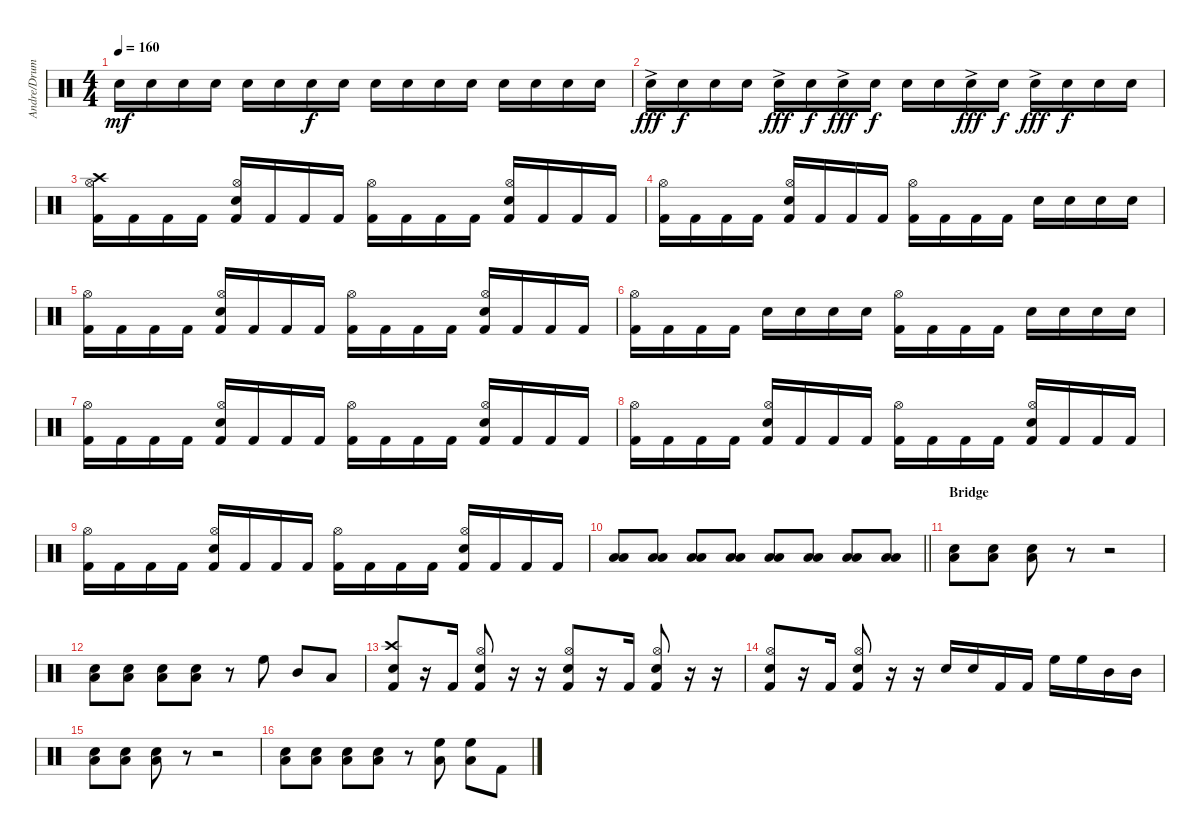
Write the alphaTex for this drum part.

\track ("Andre/Drums" "Andre/Drum") {instrument percussion}
\staff {score}
\articulation defaults
\ts (4 4)
\tempo 160
\clef neutral
\ks c "Snare (hit) 2".16{dy mf} "Snare (hit) 2".16 "Snare (hit) 2".16 "Snare (hit) 2".16 "Snare (hit) 2".16 "Snare (hit) 2".16 "Snare (hit) 2".16{dy f} "Snare (hit) 2".16 "Snare (hit) 2".16 "Snare (hit) 2".16 "Snare (hit) 2".16 "Snare (hit) 2".16 "Snare (hit) 2".16 "Snare (hit) 2".16 "Snare (hit) 2".16 "Snare (hit) 2".16
|
"Snare (hit) 2"{ac}.16{dy fff} "Snare (hit) 2".16{dy f} "Snare (hit) 2".16 "Snare (hit) 2".16 "Snare (hit) 2"{ac}.16{dy fff} "Snare (hit) 2".16{dy f} "Snare (hit) 2"{ac}.16{dy fff} "Snare (hit) 2".16{dy f} "Snare (hit) 2".16 "Snare (hit) 2".16 "Snare (hit) 2"{ac}.16{dy fff} "Snare (hit) 2".16{dy f} "Snare (hit) 2"{ac}.16{dy fff} "Snare (hit) 2".16{dy f} "Snare (hit) 2".16 "Snare (hit) 2".16 |
("Crash high (hit)" "Hi-Hat (open)" "Kick (hit) 2").16 "Kick (hit) 2".16 "Kick (hit) 2".16 "Kick (hit) 2".16 ("Hi-Hat (open)" "Snare (hit) 2" "Kick (hit) 2").16 "Kick (hit) 2".16 "Kick (hit) 2".16 "Kick (hit) 2".16 ("Hi-Hat (open)" "Kick (hit) 2").16 "Kick (hit) 2".16 "Kick (hit) 2".16 "Kick (hit) 2".16 ("Hi-Hat (open)" "Snare (hit) 2" "Kick (hit) 2").16 "Kick (hit) 2".16 "Kick (hit) 2".16 "Kick (hit) 2".16 |
("Hi-Hat (open)" "Kick (hit) 2").16 "Kick (hit) 2".16 "Kick (hit) 2".16 "Kick (hit) 2".16 ("Hi-Hat (open)" "Snare (hit) 2" "Kick (hit) 2").16 "Kick (hit) 2".16 "Kick (hit) 2".16 "Kick (hit) 2".16 ("Hi-Hat (open)" "Kick (hit) 2").16 "Kick (hit) 2".16 "Kick (hit) 2".16 "Kick (hit) 2".16 "Snare (hit) 2".16 "Snare (hit) 2".16 "Snare (hit) 2".16 "Snare (hit) 2".16 |
("Hi-Hat (open)" "Kick (hit) 2").16 "Kick (hit) 2".16 "Kick (hit) 2".16 "Kick (hit) 2".16 ("Hi-Hat (open)" "Snare (hit) 2" "Kick (hit) 2").16 "Kick (hit) 2".16 "Kick (hit) 2".16 "Kick (hit) 2".16 ("Hi-Hat (open)" "Kick (hit) 2").16 "Kick (hit) 2".16 "Kick (hit) 2".16 "Kick (hit) 2".16 ("Hi-Hat (open)" "Snare (hit) 2" "Kick (hit) 2").16 "Kick (hit) 2".16 "Kick (hit) 2".16 "Kick (hit) 2".16 |
("Hi-Hat (open)" "Kick (hit) 2").16 "Kick (hit) 2".16 "Kick (hit) 2".16 "Kick (hit) 2".16 "Snare (hit) 2".16 "Snare (hit) 2".16 "Snare (hit) 2".16 "Snare (hit) 2".16 ("Hi-Hat (open)" "Kick (hit) 2").16 "Kick (hit) 2".16 "Kick (hit) 2".16 "Kick (hit) 2".16 "Snare (hit) 2".16 "Snare (hit) 2".16 "Snare (hit) 2".16 "Snare (hit) 2".16 |
("Hi-Hat (open)" "Kick (hit) 2").16 "Kick (hit) 2".16 "Kick (hit) 2".16 "Kick (hit) 2".16 ("Hi-Hat (open)" "Snare (hit) 2" "Kick (hit) 2").16 "Kick (hit) 2".16 "Kick (hit) 2".16 "Kick (hit) 2".16 ("Hi-Hat (open)" "Kick (hit) 2").16 "Kick (hit) 2".16 "Kick (hit) 2".16 "Kick (hit) 2".16 ("Hi-Hat (open)" "Snare (hit) 2" "Kick (hit) 2").16 "Kick (hit) 2".16 "Kick (hit) 2".16 "Kick (hit) 2".16 |
("Hi-Hat (open)" "Kick (hit) 2").16 "Kick (hit) 2".16 "Kick (hit) 2".16 "Kick (hit) 2".16 ("Hi-Hat (open)" "Snare (hit) 2" "Kick (hit) 2").16 "Kick (hit) 2".16 "Kick (hit) 2".16 "Kick (hit) 2".16 ("Hi-Hat (open)" "Kick (hit) 2").16 "Kick (hit) 2".16 "Kick (hit) 2".16 "Kick (hit) 2".16 ("Hi-Hat (open)" "Snare (hit) 2" "Kick (hit) 2").16 "Kick (hit) 2".16 "Kick (hit) 2".16 "Kick (hit) 2".16 |
("Hi-Hat (open)" "Kick (hit) 2").16 "Kick (hit) 2".16 "Kick (hit) 2".16 "Kick (hit) 2".16 ("Hi-Hat (open)" "Snare (hit) 2" "Kick (hit) 2").16 "Kick (hit) 2".16 "Kick (hit) 2".16 "Kick (hit) 2".16 ("Hi-Hat (open)" "Kick (hit) 2").16 "Kick (hit) 2".16 "Kick (hit) 2".16 "Kick (hit) 2".16 ("Hi-Hat (open)" "Snare (hit) 2" "Kick (hit) 2").16 "Kick (hit) 2".16 "Kick (hit) 2".16 "Kick (hit) 2".16 |
\barLineRight lightlight
("Low Tom (hit)" "Low Floor Tom (hit)").8 ("Low Tom (hit)" "Low Floor Tom (hit)").8 ("Low Tom (hit)" "Low Floor Tom (hit)").8 ("Low Tom (hit)" "Low Floor Tom (hit)").8 ("Low Tom (hit)" "Low Floor Tom (hit)").8 ("Low Tom (hit)" "Low Floor Tom (hit)").8 ("Low Tom (hit)" "Low Floor Tom (hit)").8 ("Low Tom (hit)" "Low Floor Tom (hit)").8 |
\section ("" "Bridge")
("Snare (hit) 2" "Low Tom (hit)").8 ("Snare (hit) 2" "Low Tom (hit)").8 ("Snare (hit) 2" "Low Tom (hit)").8 r.8 r.2 |
("Snare (hit) 2" "Low Tom (hit)").8 ("Snare (hit) 2" "Low Tom (hit)").8 ("Snare (hit) 2" "Low Tom (hit)").8 ("Snare (hit) 2" "Low Tom (hit)").8 r.8 "High Floor Tom (hit)".8 "Mid Tom (hit)".8 "Low Tom (hit)".8 |
("Crash high (hit)" "Snare (hit) 2" "Kick (hit) 2").8 r.16 "Kick (hit) 2".16 ("Hi-Hat (open)" "Snare (hit) 2" "Kick (hit) 2").8 r.16 r.16 ("Hi-Hat (open)" "Snare (hit) 2" "Kick (hit) 2").8 r.16 "Kick (hit) 2".16 ("Hi-Hat (open)" "Snare (hit) 2" "Kick (hit) 2").8 r.16 r.16 |
("Hi-Hat (open)" "Snare (hit) 2" "Kick (hit) 2").8 r.16 "Kick (hit) 2".16 ("Hi-Hat (open)" "Snare (hit) 2" "Kick (hit) 2").8 r.16 r.16 "Snare (hit) 2".16 "Snare (hit) 2".16 "Kick (hit) 2".16 "Kick (hit) 2".16 "High Floor Tom (hit)".16 "High Floor Tom (hit)".16 "Mid Tom (hit)".16 "Mid Tom (hit)".16 |
("Snare (hit) 2" "Low Tom (hit)").8 ("Snare (hit) 2" "Low Tom (hit)").8 ("Snare (hit) 2" "Low Tom (hit)").8 r.8 r.2 |
("Snare (hit) 2" "Low Tom (hit)").8 ("Snare (hit) 2" "Low Tom (hit)").8 ("Snare (hit) 2" "Low Tom (hit)").8 ("Snare (hit) 2" "Low Tom (hit)").8 r.8 ("High Floor Tom (hit)" "Low Tom (hit)").8 ("High Floor Tom (hit)" "Low Tom (hit)").8 "Kick (hit) 2".8
